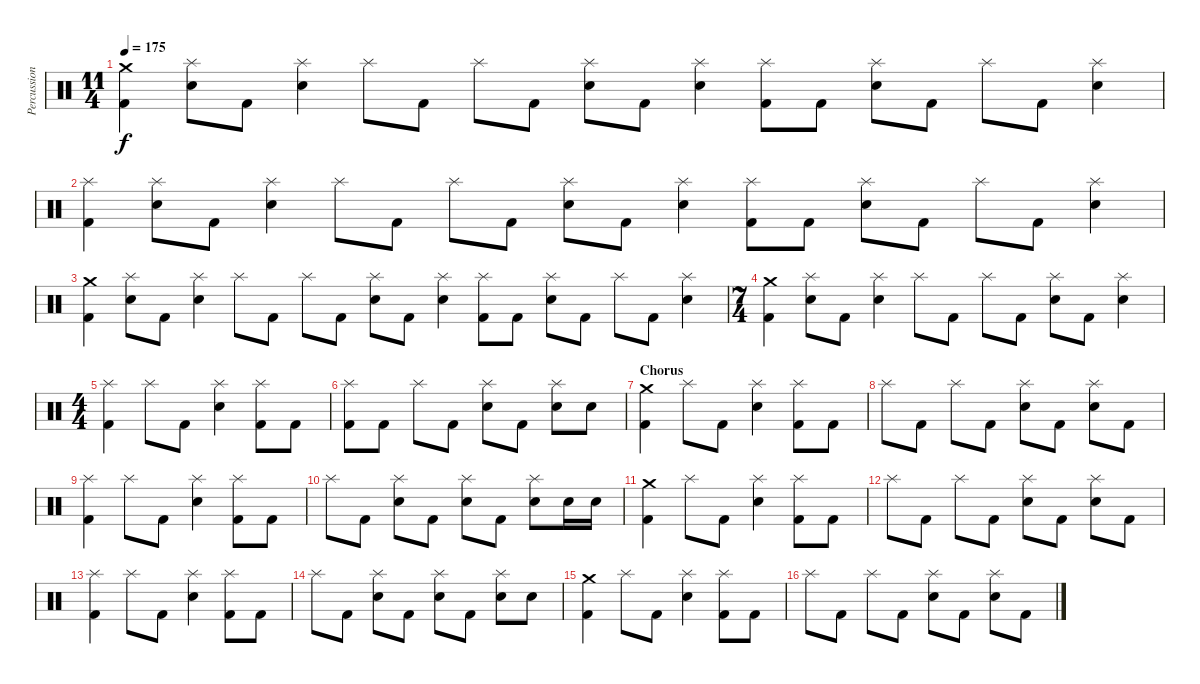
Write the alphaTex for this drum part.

\track ("Percussion" "Percussion") {instrument percussion}
\staff {score}
\articulation defaults
\ts (11 4)
\tempo 175
\clef neutral
\ks c
("Crash medium (hit)" "Kick (hit) 2").4{dy f} ("Splash (hit)" "Electric Snare (hit)").8 "Kick (hit) 2".8 ("Splash (hit)" "Electric Snare (hit)").4 "Splash (hit)".8 "Kick (hit) 2".8 "Splash (hit)".8 "Kick (hit) 2".8 ("Splash (hit)" "Electric Snare (hit)").8 "Kick (hit) 2".8 ("Splash (hit)" "Electric Snare (hit)").4 ("Splash (hit)" "Kick (hit) 2").8 "Kick (hit) 2".8 ("Splash (hit)" "Electric Snare (hit)").8 "Kick (hit) 2".8 "Splash (hit)".8 "Kick (hit) 2".8 ("Splash (hit)" "Electric Snare (hit)").4 |
("Splash (hit)" "Kick (hit) 2").4 ("Splash (hit)" "Electric Snare (hit)").8 "Kick (hit) 2".8 ("Splash (hit)" "Electric Snare (hit)").4 "Splash (hit)".8 "Kick (hit) 2".8 "Splash (hit)".8 "Kick (hit) 2".8 ("Splash (hit)" "Electric Snare (hit)").8 "Kick (hit) 2".8 ("Splash (hit)" "Electric Snare (hit)").4 ("Splash (hit)" "Kick (hit) 2").8 "Kick (hit) 2".8 ("Splash (hit)" "Electric Snare (hit)").8 "Kick (hit) 2".8 "Splash (hit)".8 "Kick (hit) 2".8 ("Splash (hit)" "Electric Snare (hit)").4 |
("Crash medium (hit)" "Kick (hit) 2").4 ("Splash (hit)" "Electric Snare (hit)").8 "Kick (hit) 2".8 ("Splash (hit)" "Electric Snare (hit)").4 "Splash (hit)".8 "Kick (hit) 2".8 "Splash (hit)".8 "Kick (hit) 2".8 ("Splash (hit)" "Electric Snare (hit)").8 "Kick (hit) 2".8 ("Splash (hit)" "Electric Snare (hit)").4 ("Splash (hit)" "Kick (hit) 2").8 "Kick (hit) 2".8 ("Splash (hit)" "Electric Snare (hit)").8 "Kick (hit) 2".8 "Splash (hit)".8 "Kick (hit) 2".8 ("Splash (hit)" "Electric Snare (hit)").4 |
\ts (7 4)
("Crash medium (hit)" "Kick (hit) 2").4 ("Splash (hit)" "Electric Snare (hit)").8 "Kick (hit) 2".8 ("Splash (hit)" "Electric Snare (hit)").4 "Splash (hit)".8 "Kick (hit) 2".8 "Splash (hit)".8 "Kick (hit) 2".8 ("Splash (hit)" "Electric Snare (hit)").8 "Kick (hit) 2".8 ("Splash (hit)" "Electric Snare (hit)").4 |
\ts (4 4)
("Splash (hit)" "Kick (hit) 2").4 "Splash (hit)".8 "Kick (hit) 2".8 ("Splash (hit)" "Electric Snare (hit)").4 ("Splash (hit)" "Kick (hit) 2").8 "Kick (hit) 2".8 |
("Splash (hit)" "Kick (hit) 2").8 "Kick (hit) 2".8 "Splash (hit)".8 "Kick (hit) 2".8 ("Splash (hit)" "Electric Snare (hit)").8 "Kick (hit) 2".8 ("Splash (hit)" "Electric Snare (hit)").8 "Electric Snare (hit)".8 |
\section ("" "Chorus")
("Crash medium (hit)" "Kick (hit) 2").4 "Splash (hit)".8 "Kick (hit) 2".8 ("Splash (hit)" "Electric Snare (hit)").4 ("Splash (hit)" "Kick (hit) 2").8 "Kick (hit) 2".8 |
"Splash (hit)".8 "Kick (hit) 2".8 "Splash (hit)".8 "Kick (hit) 2".8 ("Splash (hit)" "Electric Snare (hit)").8 "Kick (hit) 2".8 ("Splash (hit)" "Electric Snare (hit)").8 "Kick (hit) 2".8 |
("Splash (hit)" "Kick (hit) 2").4 "Splash (hit)".8 "Kick (hit) 2".8 ("Splash (hit)" "Electric Snare (hit)").4 ("Splash (hit)" "Kick (hit) 2").8 "Kick (hit) 2".8 |
"Splash (hit)".8 "Kick (hit) 2".8 ("Splash (hit)" "Electric Snare (hit)").8 "Kick (hit) 2".8 ("Splash (hit)" "Electric Snare (hit)").8 "Kick (hit) 2".8 ("Splash (hit)" "Electric Snare (hit)").8 "Electric Snare (hit)".16 "Electric Snare (hit)".16 |
("Crash medium (hit)" "Kick (hit) 2").4 "Splash (hit)".8 "Kick (hit) 2".8 ("Splash (hit)" "Electric Snare (hit)").4 ("Splash (hit)" "Kick (hit) 2").8 "Kick (hit) 2".8 |
"Splash (hit)".8 "Kick (hit) 2".8 "Splash (hit)".8 "Kick (hit) 2".8 ("Splash (hit)" "Electric Snare (hit)").8 "Kick (hit) 2".8 ("Splash (hit)" "Electric Snare (hit)").8 "Kick (hit) 2".8 |
("Splash (hit)" "Kick (hit) 2").4 "Splash (hit)".8 "Kick (hit) 2".8 ("Splash (hit)" "Electric Snare (hit)").4 ("Splash (hit)" "Kick (hit) 2").8 "Kick (hit) 2".8 |
"Splash (hit)".8 "Kick (hit) 2".8 ("Splash (hit)" "Electric Snare (hit)").8 "Kick (hit) 2".8 ("Splash (hit)" "Electric Snare (hit)").8 "Kick (hit) 2".8 ("Splash (hit)" "Electric Snare (hit)").8 "Electric Snare (hit)".8 |
("Crash medium (hit)" "Kick (hit) 2").4 "Splash (hit)".8 "Kick (hit) 2".8 ("Splash (hit)" "Electric Snare (hit)").4 ("Splash (hit)" "Kick (hit) 2").8 "Kick (hit) 2".8 |
"Splash (hit)".8 "Kick (hit) 2".8 "Splash (hit)".8 "Kick (hit) 2".8 ("Splash (hit)" "Electric Snare (hit)").8 "Kick (hit) 2".8 ("Splash (hit)" "Electric Snare (hit)").8 "Kick (hit) 2".8
